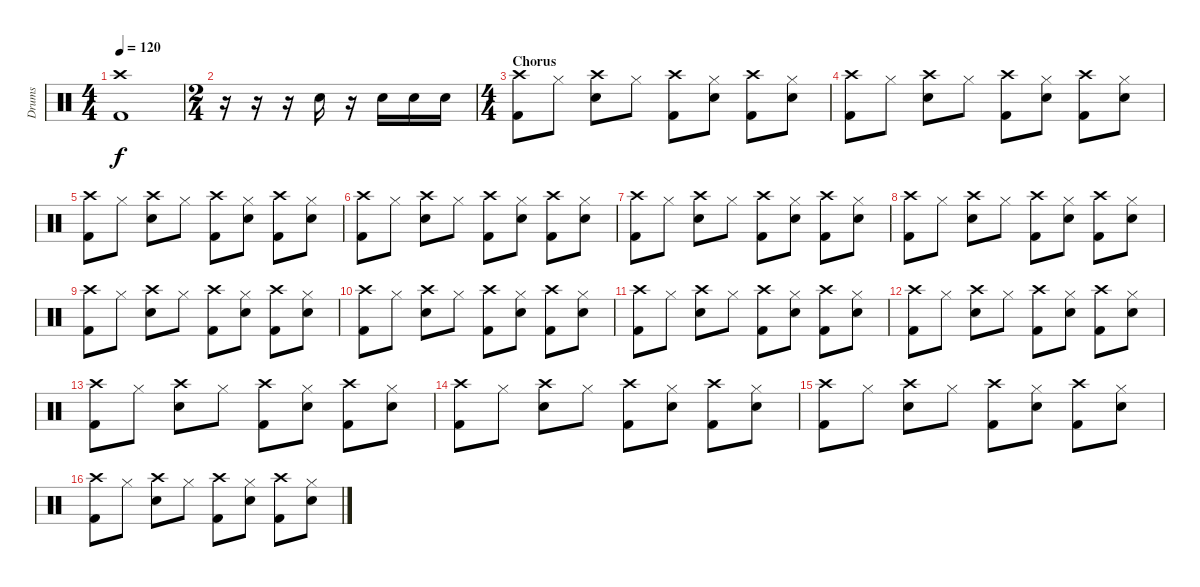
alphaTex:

\track ("Drums" "Drums") {instrument percussion}
\staff {score}
\articulation defaults
\ts (4 4)
\tempo 120
\clef neutral
\ks c
("Kick (hit) 2" "Crash high (hit)").1{dy f} |
\ts (2 4)
r.16 r.16 r.16 "Snare (hit) 2".16 r.16 "Snare (hit) 2".16 "Snare (hit) 2".16 "Snare (hit) 2".16 |
\ts (4 4)
\section ("" "Chorus")
("Kick (hit) 2" "Crash high (hit)").8 "Hi-Hat (closed)".8 ("Snare (hit) 2" "Crash high (hit)").8 "Hi-Hat (closed)".8 ("Kick (hit) 2" "Crash high (hit)").8 ("Snare (hit) 2" "Hi-Hat (closed)").8 ("Kick (hit) 2" "Crash high (hit)").8 ("Snare (hit) 2" "Hi-Hat (closed)").8 |
("Kick (hit) 2" "Crash high (hit)").8 "Hi-Hat (closed)".8 ("Snare (hit) 2" "Crash high (hit)").8 "Hi-Hat (closed)".8 ("Kick (hit) 2" "Crash high (hit)").8 ("Snare (hit) 2" "Hi-Hat (closed)").8 ("Kick (hit) 2" "Crash high (hit)").8 ("Snare (hit) 2" "Hi-Hat (closed)").8 |
("Kick (hit) 2" "Crash high (hit)").8 "Hi-Hat (closed)".8 ("Snare (hit) 2" "Crash high (hit)").8 "Hi-Hat (closed)".8 ("Kick (hit) 2" "Crash high (hit)").8 ("Snare (hit) 2" "Hi-Hat (closed)").8 ("Kick (hit) 2" "Crash high (hit)").8 ("Snare (hit) 2" "Hi-Hat (closed)").8 |
("Kick (hit) 2" "Crash high (hit)").8 "Hi-Hat (closed)".8 ("Snare (hit) 2" "Crash high (hit)").8 "Hi-Hat (closed)".8 ("Kick (hit) 2" "Crash high (hit)").8 ("Snare (hit) 2" "Hi-Hat (closed)").8 ("Kick (hit) 2" "Crash high (hit)").8 ("Snare (hit) 2" "Hi-Hat (closed)").8 |
("Kick (hit) 2" "Crash high (hit)").8 "Hi-Hat (closed)".8 ("Snare (hit) 2" "Crash high (hit)").8 "Hi-Hat (closed)".8 ("Kick (hit) 2" "Crash high (hit)").8 ("Snare (hit) 2" "Hi-Hat (closed)").8 ("Kick (hit) 2" "Crash high (hit)").8 ("Snare (hit) 2" "Hi-Hat (closed)").8 |
("Kick (hit) 2" "Crash high (hit)").8 "Hi-Hat (closed)".8 ("Snare (hit) 2" "Crash high (hit)").8 "Hi-Hat (closed)".8 ("Kick (hit) 2" "Crash high (hit)").8 ("Snare (hit) 2" "Hi-Hat (closed)").8 ("Kick (hit) 2" "Crash high (hit)").8 ("Snare (hit) 2" "Hi-Hat (closed)").8 |
("Kick (hit) 2" "Crash high (hit)").8 "Hi-Hat (closed)".8 ("Snare (hit) 2" "Crash high (hit)").8 "Hi-Hat (closed)".8 ("Kick (hit) 2" "Crash high (hit)").8 ("Snare (hit) 2" "Hi-Hat (closed)").8 ("Kick (hit) 2" "Crash high (hit)").8 ("Snare (hit) 2" "Hi-Hat (closed)").8 |
("Kick (hit) 2" "Crash high (hit)").8 "Hi-Hat (closed)".8 ("Snare (hit) 2" "Crash high (hit)").8 "Hi-Hat (closed)".8 ("Kick (hit) 2" "Crash high (hit)").8 ("Snare (hit) 2" "Hi-Hat (closed)").8 ("Kick (hit) 2" "Crash high (hit)").8 ("Snare (hit) 2" "Hi-Hat (closed)").8 |
("Kick (hit) 2" "Crash high (hit)").8 "Hi-Hat (closed)".8 ("Snare (hit) 2" "Crash high (hit)").8 "Hi-Hat (closed)".8 ("Kick (hit) 2" "Crash high (hit)").8 ("Snare (hit) 2" "Hi-Hat (closed)").8 ("Kick (hit) 2" "Crash high (hit)").8 ("Snare (hit) 2" "Hi-Hat (closed)").8 |
("Kick (hit) 2" "Crash high (hit)").8 "Hi-Hat (closed)".8 ("Snare (hit) 2" "Crash high (hit)").8 "Hi-Hat (closed)".8 ("Kick (hit) 2" "Crash high (hit)").8 ("Snare (hit) 2" "Hi-Hat (closed)").8 ("Kick (hit) 2" "Crash high (hit)").8 ("Snare (hit) 2" "Hi-Hat (closed)").8 |
("Kick (hit) 2" "Crash high (hit)").8 "Hi-Hat (closed)".8 ("Snare (hit) 2" "Crash high (hit)").8 "Hi-Hat (closed)".8 ("Kick (hit) 2" "Crash high (hit)").8 ("Snare (hit) 2" "Hi-Hat (closed)").8 ("Kick (hit) 2" "Crash high (hit)").8 ("Snare (hit) 2" "Hi-Hat (closed)").8 |
("Kick (hit) 2" "Crash high (hit)").8 "Hi-Hat (closed)".8 ("Snare (hit) 2" "Crash high (hit)").8 "Hi-Hat (closed)".8 ("Kick (hit) 2" "Crash high (hit)").8 ("Snare (hit) 2" "Hi-Hat (closed)").8 ("Kick (hit) 2" "Crash high (hit)").8 ("Snare (hit) 2" "Hi-Hat (closed)").8 |
("Kick (hit) 2" "Crash high (hit)").8 "Hi-Hat (closed)".8 ("Snare (hit) 2" "Crash high (hit)").8 "Hi-Hat (closed)".8 ("Kick (hit) 2" "Crash high (hit)").8 ("Snare (hit) 2" "Hi-Hat (closed)").8 ("Kick (hit) 2" "Crash high (hit)").8 ("Snare (hit) 2" "Hi-Hat (closed)").8 |
("Kick (hit) 2" "Crash high (hit)").8 "Hi-Hat (closed)".8 ("Snare (hit) 2" "Crash high (hit)").8 "Hi-Hat (closed)".8 ("Kick (hit) 2" "Crash high (hit)").8 ("Snare (hit) 2" "Hi-Hat (closed)").8 ("Kick (hit) 2" "Crash high (hit)").8 ("Snare (hit) 2" "Hi-Hat (closed)").8
